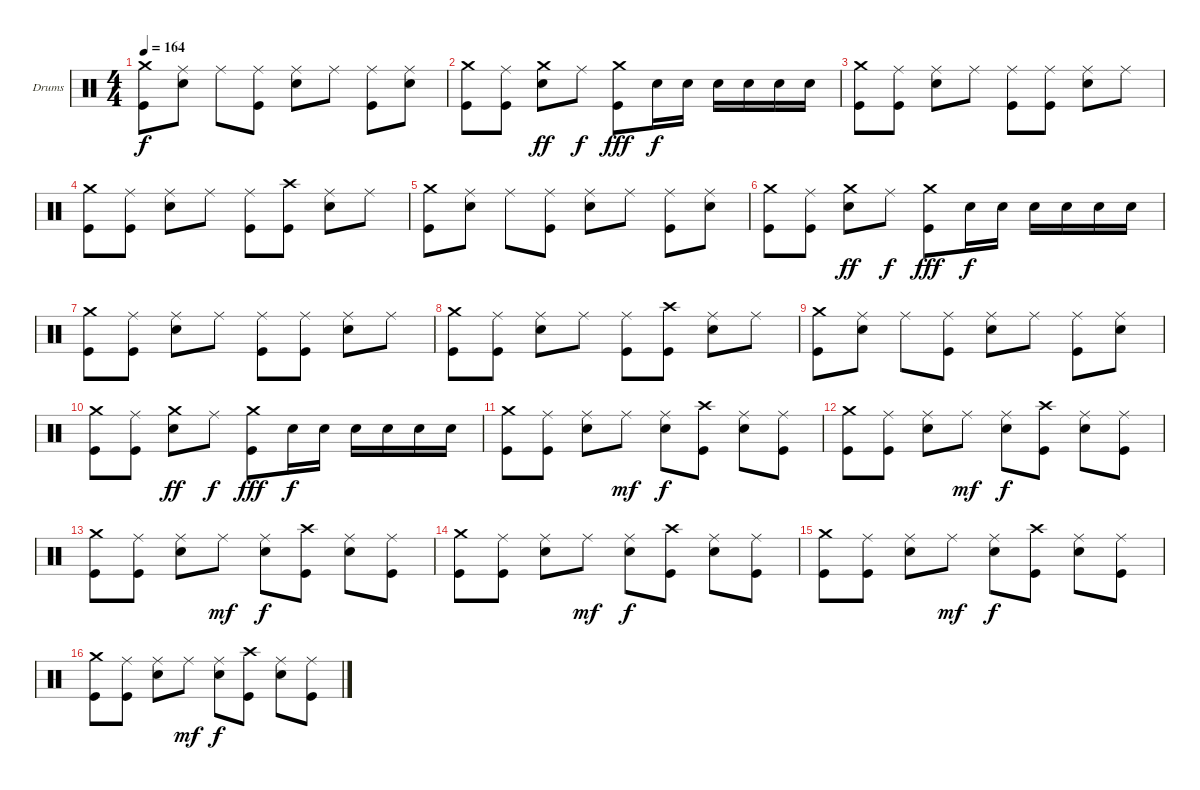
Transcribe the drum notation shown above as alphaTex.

\defaultSystemsLayout 4
\bracketExtendMode nobrackets
\firstSystemTrackNameOrientation horizontal
\otherSystemsTrackNameOrientation horizontal
\track ("Dave Abbruzzese" "Drums") {solo instrument percussion}
\staff {score}
\articulation defaults
\ts (4 4)
\tempo 164
\clef neutral
\ks c
("Kick (hit)" "Crash medium (hit)").8{dy f} ("Snare (hit) 2" "Ride (middle)").8 "Ride (middle)".8 ("Kick (hit)" "Ride (middle)").8 ("Snare (hit) 2" "Ride (middle)").8 "Ride (middle)".8 ("Kick (hit)" "Ride (middle)").8 ("Snare (hit) 2" "Ride (middle)").8 |
("Crash medium (hit)" "Kick (hit)").8 ("Kick (hit)" "Ride (middle)").8 ("Crash medium (hit)" "Snare (hit) 2").8{dy ff} "Ride (middle)".8{dy f} ("Crash medium (hit)" "Kick (hit)").8{dy fff} "Snare (hit) 2".16{dy f} "Snare (hit) 2".16 "Snare (hit) 2".16 "Snare (hit) 2".16 "Snare (hit) 2".16 "Snare (hit) 2".16 |
("Kick (hit)" "Crash medium (hit)").8 ("Kick (hit)" "Ride (middle)").8 ("Snare (hit) 2" "Ride (middle)").8 "Ride (middle)".8 ("Kick (hit)" "Ride (middle)").8 ("Kick (hit)" "Ride (middle)").8 ("Snare (hit) 2" "Ride (middle)").8 "Ride (middle)".8 |
("Kick (hit)" "Crash medium (hit)").8 ("Kick (hit)" "Ride (middle)").8 ("Snare (hit) 2" "Ride (middle)").8 "Ride (middle)".8 ("Kick (hit)" "Ride (middle)").8 ("Kick (hit)" "Crash high (hit)").8 ("Snare (hit) 2" "Ride (middle)").8 "Ride (middle)".8 |
("Kick (hit)" "Crash medium (hit)").8 ("Snare (hit) 2" "Ride (middle)").8 "Ride (middle)".8 ("Kick (hit)" "Ride (middle)").8 ("Snare (hit) 2" "Ride (middle)").8 "Ride (middle)".8 ("Kick (hit)" "Ride (middle)").8 ("Snare (hit) 2" "Ride (middle)").8 |
("Crash medium (hit)" "Kick (hit)").8 ("Kick (hit)" "Ride (middle)").8 ("Crash medium (hit)" "Snare (hit) 2").8{dy ff} "Ride (middle)".8{dy f} ("Crash medium (hit)" "Kick (hit)").8{dy fff} "Snare (hit) 2".16{dy f} "Snare (hit) 2".16 "Snare (hit) 2".16 "Snare (hit) 2".16 "Snare (hit) 2".16 "Snare (hit) 2".16 |
("Kick (hit)" "Crash medium (hit)").8 ("Kick (hit)" "Ride (middle)").8 ("Snare (hit) 2" "Ride (middle)").8 "Ride (middle)".8 ("Kick (hit)" "Ride (middle)").8 ("Kick (hit)" "Ride (middle)").8 ("Snare (hit) 2" "Ride (middle)").8 "Ride (middle)".8 |
("Kick (hit)" "Crash medium (hit)").8 ("Kick (hit)" "Ride (middle)").8 ("Snare (hit) 2" "Ride (middle)").8 "Ride (middle)".8 ("Kick (hit)" "Ride (middle)").8 ("Kick (hit)" "Crash high (hit)").8 ("Snare (hit) 2" "Ride (middle)").8 "Ride (middle)".8 |
("Kick (hit)" "Crash medium (hit)").8 ("Snare (hit) 2" "Ride (middle)").8 "Ride (middle)".8 ("Kick (hit)" "Ride (middle)").8 ("Snare (hit) 2" "Ride (middle)").8 "Ride (middle)".8 ("Kick (hit)" "Ride (middle)").8 ("Snare (hit) 2" "Ride (middle)").8 |
("Crash medium (hit)" "Kick (hit)").8 ("Kick (hit)" "Ride (middle)").8 ("Crash medium (hit)" "Snare (hit) 2").8{dy ff} "Ride (middle)".8{dy f} ("Crash medium (hit)" "Kick (hit)").8{dy fff} "Snare (hit) 2".16{dy f} "Snare (hit) 2".16 "Snare (hit) 2".16 "Snare (hit) 2".16 "Snare (hit) 2".16 "Snare (hit) 2".16 |
("Kick (hit)" "Crash medium (hit)").8 ("Kick (hit)" "Ride (middle)").8 ("Snare (hit) 2" "Ride (middle)").8 "Ride (middle)".8{dy mf} ("Snare (hit) 2" "Ride (middle)").8{dy f} ("Kick (hit)" "Crash high (hit)").8 ("Snare (hit) 2" "Ride (middle)").8 ("Kick (hit)" "Ride (middle)").8 |
("Kick (hit)" "Crash medium (hit)").8 ("Kick (hit)" "Ride (middle)").8 ("Snare (hit) 2" "Ride (middle)").8 "Ride (middle)".8{dy mf} ("Snare (hit) 2" "Ride (middle)").8{dy f} ("Kick (hit)" "Crash high (hit)").8 ("Snare (hit) 2" "Ride (middle)").8 ("Kick (hit)" "Ride (middle)").8 |
("Kick (hit)" "Crash medium (hit)").8 ("Kick (hit)" "Ride (middle)").8 ("Snare (hit) 2" "Ride (middle)").8 "Ride (middle)".8{dy mf} ("Snare (hit) 2" "Ride (middle)").8{dy f} ("Kick (hit)" "Crash high (hit)").8 ("Snare (hit) 2" "Ride (middle)").8 ("Kick (hit)" "Ride (middle)").8 |
("Kick (hit)" "Crash medium (hit)").8 ("Kick (hit)" "Ride (middle)").8 ("Snare (hit) 2" "Ride (middle)").8 "Ride (middle)".8{dy mf} ("Snare (hit) 2" "Ride (middle)").8{dy f} ("Kick (hit)" "Crash high (hit)").8 ("Snare (hit) 2" "Ride (middle)").8 ("Kick (hit)" "Ride (middle)").8 |
("Kick (hit)" "Crash medium (hit)").8 ("Kick (hit)" "Ride (middle)").8 ("Snare (hit) 2" "Ride (middle)").8 "Ride (middle)".8{dy mf} ("Snare (hit) 2" "Ride (middle)").8{dy f} ("Kick (hit)" "Crash high (hit)").8 ("Snare (hit) 2" "Ride (middle)").8 ("Kick (hit)" "Ride (middle)").8 |
("Kick (hit)" "Crash medium (hit)").8 ("Kick (hit)" "Ride (middle)").8 ("Snare (hit) 2" "Ride (middle)").8 "Ride (middle)".8{dy mf} ("Snare (hit) 2" "Ride (middle)").8{dy f} ("Kick (hit)" "Crash high (hit)").8 ("Snare (hit) 2" "Ride (middle)").8 ("Kick (hit)" "Ride (middle)").8
